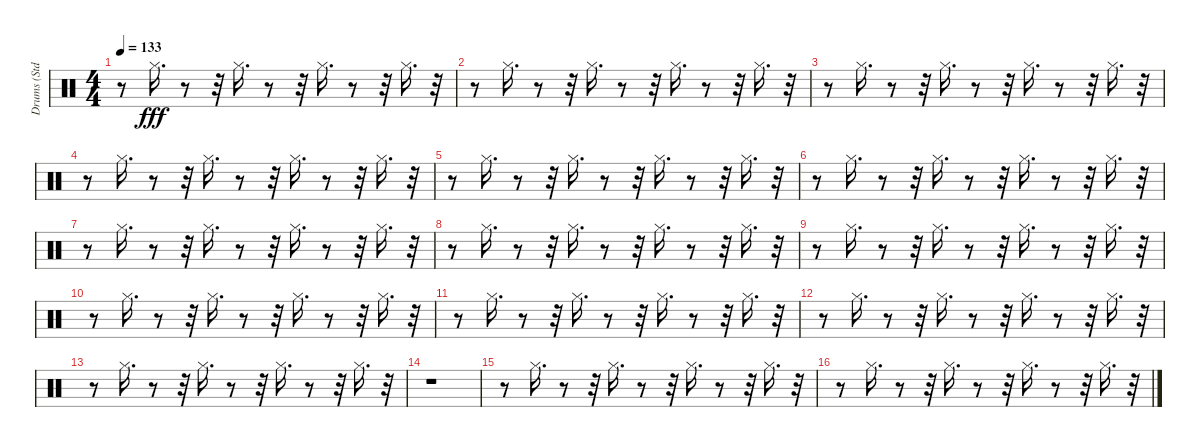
\track ("Drums (Std.)" "Drums (Std") {instrument percussion}
\staff {score}
\articulation defaults
\ts (4 4)
\tempo 133
\clef neutral
\ks c
r.8{dy fff} "Hi-Hat (closed)".16{d} r.8 r.32 "Hi-Hat (closed)".16{d} r.8 r.32 "Hi-Hat (closed)".16{d} r.8 r.32 "Hi-Hat (closed)".16{d} r.32 |
r.8 "Hi-Hat (closed)".16{d} r.8 r.32 "Hi-Hat (closed)".16{d} r.8 r.32 "Hi-Hat (closed)".16{d} r.8 r.32 "Hi-Hat (closed)".16{d} r.32 |
r.8 "Hi-Hat (closed)".16{d} r.8 r.32 "Hi-Hat (closed)".16{d} r.8 r.32 "Hi-Hat (closed)".16{d} r.8 r.32 "Hi-Hat (closed)".16{d} r.32 |
r.8 "Hi-Hat (closed)".16{d} r.8 r.32 "Hi-Hat (closed)".16{d} r.8 r.32 "Hi-Hat (closed)".16{d} r.8 r.32 "Hi-Hat (closed)".16{d} r.32 |
r.8 "Hi-Hat (closed)".16{d} r.8 r.32 "Hi-Hat (closed)".16{d} r.8 r.32 "Hi-Hat (closed)".16{d} r.8 r.32 "Hi-Hat (closed)".16{d} r.32 |
r.8 "Hi-Hat (closed)".16{d} r.8 r.32 "Hi-Hat (closed)".16{d} r.8 r.32 "Hi-Hat (closed)".16{d} r.8 r.32 "Hi-Hat (closed)".16{d} r.32 |
r.8 "Hi-Hat (closed)".16{d} r.8 r.32 "Hi-Hat (closed)".16{d} r.8 r.32 "Hi-Hat (closed)".16{d} r.8 r.32 "Hi-Hat (closed)".16{d} r.32 |
r.8 "Hi-Hat (closed)".16{d} r.8 r.32 "Hi-Hat (closed)".16{d} r.8 r.32 "Hi-Hat (closed)".16{d} r.8 r.32 "Hi-Hat (closed)".16{d} r.32 |
r.8 "Hi-Hat (closed)".16{d} r.8 r.32 "Hi-Hat (closed)".16{d} r.8 r.32 "Hi-Hat (closed)".16{d} r.8 r.32 "Hi-Hat (closed)".16{d} r.32 |
r.8 "Hi-Hat (closed)".16{d} r.8 r.32 "Hi-Hat (closed)".16{d} r.8 r.32 "Hi-Hat (closed)".16{d} r.8 r.32 "Hi-Hat (closed)".16{d} r.32 |
r.8 "Hi-Hat (closed)".16{d} r.8 r.32 "Hi-Hat (closed)".16{d} r.8 r.32 "Hi-Hat (closed)".16{d} r.8 r.32 "Hi-Hat (closed)".16{d} r.32 |
r.8 "Hi-Hat (closed)".16{d} r.8 r.32 "Hi-Hat (closed)".16{d} r.8 r.32 "Hi-Hat (closed)".16{d} r.8 r.32 "Hi-Hat (closed)".16{d} r.32 |
r.8 "Hi-Hat (closed)".16{d} r.8 r.32 "Hi-Hat (closed)".16{d} r.8 r.32 "Hi-Hat (closed)".16{d} r.8 r.32 "Hi-Hat (closed)".16{d} r.32 |
r.1 |
r.8 "Hi-Hat (closed)".16{d} r.8 r.32 "Hi-Hat (closed)".16{d} r.8 r.32 "Hi-Hat (closed)".16{d} r.8 r.32 "Hi-Hat (closed)".16{d} r.32 |
r.8 "Hi-Hat (closed)".16{d} r.8 r.32 "Hi-Hat (closed)".16{d} r.8 r.32 "Hi-Hat (closed)".16{d} r.8 r.32 "Hi-Hat (closed)".16{d} r.32
